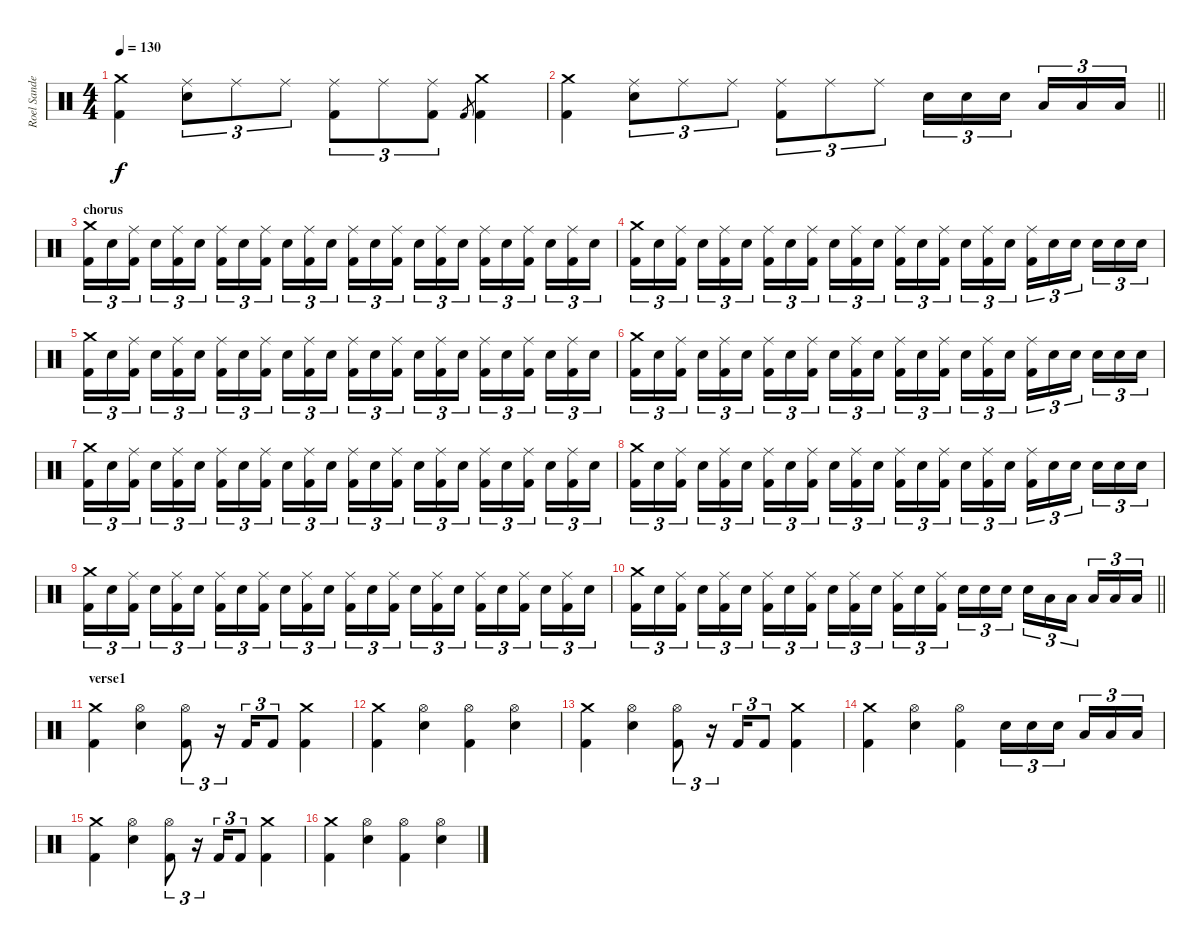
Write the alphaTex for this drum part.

\track ("Roel Sander " "Roel Sande") {instrument percussion}
\staff {score}
\articulation defaults
\ts (4 4)
\tempo 130
\clef neutral
\ks c
("Crash medium (hit)" "Kick (hit) 2").4{dy f} ("Ride (middle)" "Snare (hit) 2").8{tu (3 2)} "Ride (middle)".8{tu (3 2)} "Ride (middle)".8{tu (3 2)} ("Ride (middle)" "Kick (hit) 2").8{tu (3 2)} "Ride (middle)".8{tu (3 2)} ("Ride (middle)" "Kick (hit) 2").8{tu (3 2)} "Kick (hit) 2".8{gr} ("Crash medium (hit)" "Kick (hit) 2").4 |
\barLineRight lightlight
("Crash medium (hit)" "Kick (hit) 2").4 ("Ride (middle)" "Snare (hit) 2").8{tu (3 2)} "Ride (middle)".8{tu (3 2)} "Ride (middle)".8{tu (3 2)} ("Ride (middle)" "Kick (hit) 2").8{tu (3 2)} "Ride (middle)".8{tu (3 2)} "Ride (middle)".8{tu (3 2)} "Snare (hit) 2".16{tu (3 2)} "Snare (hit) 2".16{tu (3 2)} "Snare (hit) 2".16{tu (3 2) beam splitsecondary} "Low Tom (hit)".16{tu (3 2)} "Low Tom (hit)".16{tu (3 2)} "Low Tom (hit)".16{tu (3 2)} |
\section ("" "chorus")
("Crash medium (hit)" "Kick (hit) 2").16{tu (3 2)} "Snare (hit) 2".16{tu (3 2)} ("Ride (middle)" "Kick (hit) 2").16{tu (3 2) beam splitsecondary} "Snare (hit) 2".16{tu (3 2)} ("Ride (middle)" "Kick (hit) 2").16{tu (3 2)} "Snare (hit) 2".16{tu (3 2)} ("Ride (middle)" "Kick (hit) 2").16{tu (3 2)} "Snare (hit) 2".16{tu (3 2)} ("Ride (middle)" "Kick (hit) 2").16{tu (3 2) beam splitsecondary} "Snare (hit) 2".16{tu (3 2)} ("Ride (middle)" "Kick (hit) 2").16{tu (3 2)} "Snare (hit) 2".16{tu (3 2)} ("Ride (middle)" "Kick (hit) 2").16{tu (3 2)} "Snare (hit) 2".16{tu (3 2)} ("Ride (middle)" "Kick (hit) 2").16{tu (3 2) beam splitsecondary} "Snare (hit) 2".16{tu (3 2)} ("Ride (middle)" "Kick (hit) 2").16{tu (3 2)} "Snare (hit) 2".16{tu (3 2)} ("Ride (middle)" "Kick (hit) 2").16{tu (3 2)} "Snare (hit) 2".16{tu (3 2)} ("Ride (middle)" "Kick (hit) 2").16{tu (3 2) beam splitsecondary} "Snare (hit) 2".16{tu (3 2)} ("Ride (middle)" "Kick (hit) 2").16{tu (3 2)} "Snare (hit) 2".16{tu (3 2)} |
("Crash medium (hit)" "Kick (hit) 2").16{tu (3 2)} "Snare (hit) 2".16{tu (3 2)} ("Ride (middle)" "Kick (hit) 2").16{tu (3 2) beam splitsecondary} "Snare (hit) 2".16{tu (3 2)} ("Ride (middle)" "Kick (hit) 2").16{tu (3 2)} "Snare (hit) 2".16{tu (3 2)} ("Ride (middle)" "Kick (hit) 2").16{tu (3 2)} "Snare (hit) 2".16{tu (3 2)} ("Ride (middle)" "Kick (hit) 2").16{tu (3 2) beam splitsecondary} "Snare (hit) 2".16{tu (3 2)} ("Ride (middle)" "Kick (hit) 2").16{tu (3 2)} "Snare (hit) 2".16{tu (3 2)} ("Ride (middle)" "Kick (hit) 2").16{tu (3 2)} "Snare (hit) 2".16{tu (3 2)} ("Ride (middle)" "Kick (hit) 2").16{tu (3 2) beam splitsecondary} "Snare (hit) 2".16{tu (3 2)} ("Ride (middle)" "Kick (hit) 2").16{tu (3 2)} "Snare (hit) 2".16{tu (3 2)} ("Ride (middle)" "Kick (hit) 2").16{tu (3 2)} "Snare (hit) 2".16{tu (3 2)} "Snare (hit) 2".16{tu (3 2) beam splitsecondary} "Snare (hit) 2".16{tu (3 2)} "Snare (hit) 2".16{tu (3 2)} "Snare (hit) 2".16{tu (3 2)} |
("Crash medium (hit)" "Kick (hit) 2").16{tu (3 2)} "Snare (hit) 2".16{tu (3 2)} ("Ride (middle)" "Kick (hit) 2").16{tu (3 2) beam splitsecondary} "Snare (hit) 2".16{tu (3 2)} ("Ride (middle)" "Kick (hit) 2").16{tu (3 2)} "Snare (hit) 2".16{tu (3 2)} ("Ride (middle)" "Kick (hit) 2").16{tu (3 2)} "Snare (hit) 2".16{tu (3 2)} ("Ride (middle)" "Kick (hit) 2").16{tu (3 2) beam splitsecondary} "Snare (hit) 2".16{tu (3 2)} ("Ride (middle)" "Kick (hit) 2").16{tu (3 2)} "Snare (hit) 2".16{tu (3 2)} ("Ride (middle)" "Kick (hit) 2").16{tu (3 2)} "Snare (hit) 2".16{tu (3 2)} ("Ride (middle)" "Kick (hit) 2").16{tu (3 2) beam splitsecondary} "Snare (hit) 2".16{tu (3 2)} ("Ride (middle)" "Kick (hit) 2").16{tu (3 2)} "Snare (hit) 2".16{tu (3 2)} ("Ride (middle)" "Kick (hit) 2").16{tu (3 2)} "Snare (hit) 2".16{tu (3 2)} ("Ride (middle)" "Kick (hit) 2").16{tu (3 2) beam splitsecondary} "Snare (hit) 2".16{tu (3 2)} ("Ride (middle)" "Kick (hit) 2").16{tu (3 2)} "Snare (hit) 2".16{tu (3 2)} |
("Crash medium (hit)" "Kick (hit) 2").16{tu (3 2)} "Snare (hit) 2".16{tu (3 2)} ("Ride (middle)" "Kick (hit) 2").16{tu (3 2) beam splitsecondary} "Snare (hit) 2".16{tu (3 2)} ("Ride (middle)" "Kick (hit) 2").16{tu (3 2)} "Snare (hit) 2".16{tu (3 2)} ("Ride (middle)" "Kick (hit) 2").16{tu (3 2)} "Snare (hit) 2".16{tu (3 2)} ("Ride (middle)" "Kick (hit) 2").16{tu (3 2) beam splitsecondary} "Snare (hit) 2".16{tu (3 2)} ("Ride (middle)" "Kick (hit) 2").16{tu (3 2)} "Snare (hit) 2".16{tu (3 2)} ("Ride (middle)" "Kick (hit) 2").16{tu (3 2)} "Snare (hit) 2".16{tu (3 2)} ("Ride (middle)" "Kick (hit) 2").16{tu (3 2) beam splitsecondary} "Snare (hit) 2".16{tu (3 2)} ("Ride (middle)" "Kick (hit) 2").16{tu (3 2)} "Snare (hit) 2".16{tu (3 2)} ("Ride (middle)" "Kick (hit) 2").16{tu (3 2)} "Snare (hit) 2".16{tu (3 2)} "Snare (hit) 2".16{tu (3 2) beam splitsecondary} "Snare (hit) 2".16{tu (3 2)} "Snare (hit) 2".16{tu (3 2)} "Snare (hit) 2".16{tu (3 2)} |
("Crash medium (hit)" "Kick (hit) 2").16{tu (3 2)} "Snare (hit) 2".16{tu (3 2)} ("Ride (middle)" "Kick (hit) 2").16{tu (3 2) beam splitsecondary} "Snare (hit) 2".16{tu (3 2)} ("Ride (middle)" "Kick (hit) 2").16{tu (3 2)} "Snare (hit) 2".16{tu (3 2)} ("Ride (middle)" "Kick (hit) 2").16{tu (3 2)} "Snare (hit) 2".16{tu (3 2)} ("Ride (middle)" "Kick (hit) 2").16{tu (3 2) beam splitsecondary} "Snare (hit) 2".16{tu (3 2)} ("Ride (middle)" "Kick (hit) 2").16{tu (3 2)} "Snare (hit) 2".16{tu (3 2)} ("Ride (middle)" "Kick (hit) 2").16{tu (3 2)} "Snare (hit) 2".16{tu (3 2)} ("Ride (middle)" "Kick (hit) 2").16{tu (3 2) beam splitsecondary} "Snare (hit) 2".16{tu (3 2)} ("Ride (middle)" "Kick (hit) 2").16{tu (3 2)} "Snare (hit) 2".16{tu (3 2)} ("Ride (middle)" "Kick (hit) 2").16{tu (3 2)} "Snare (hit) 2".16{tu (3 2)} ("Ride (middle)" "Kick (hit) 2").16{tu (3 2) beam splitsecondary} "Snare (hit) 2".16{tu (3 2)} ("Ride (middle)" "Kick (hit) 2").16{tu (3 2)} "Snare (hit) 2".16{tu (3 2)} |
("Crash medium (hit)" "Kick (hit) 2").16{tu (3 2)} "Snare (hit) 2".16{tu (3 2)} ("Ride (middle)" "Kick (hit) 2").16{tu (3 2) beam splitsecondary} "Snare (hit) 2".16{tu (3 2)} ("Ride (middle)" "Kick (hit) 2").16{tu (3 2)} "Snare (hit) 2".16{tu (3 2)} ("Ride (middle)" "Kick (hit) 2").16{tu (3 2)} "Snare (hit) 2".16{tu (3 2)} ("Ride (middle)" "Kick (hit) 2").16{tu (3 2) beam splitsecondary} "Snare (hit) 2".16{tu (3 2)} ("Ride (middle)" "Kick (hit) 2").16{tu (3 2)} "Snare (hit) 2".16{tu (3 2)} ("Ride (middle)" "Kick (hit) 2").16{tu (3 2)} "Snare (hit) 2".16{tu (3 2)} ("Ride (middle)" "Kick (hit) 2").16{tu (3 2) beam splitsecondary} "Snare (hit) 2".16{tu (3 2)} ("Ride (middle)" "Kick (hit) 2").16{tu (3 2)} "Snare (hit) 2".16{tu (3 2)} ("Ride (middle)" "Kick (hit) 2").16{tu (3 2)} "Snare (hit) 2".16{tu (3 2)} "Snare (hit) 2".16{tu (3 2) beam splitsecondary} "Snare (hit) 2".16{tu (3 2)} "Snare (hit) 2".16{tu (3 2)} "Snare (hit) 2".16{tu (3 2)} |
("Crash medium (hit)" "Kick (hit) 2").16{tu (3 2)} "Snare (hit) 2".16{tu (3 2)} ("Ride (middle)" "Kick (hit) 2").16{tu (3 2) beam splitsecondary} "Snare (hit) 2".16{tu (3 2)} ("Ride (middle)" "Kick (hit) 2").16{tu (3 2)} "Snare (hit) 2".16{tu (3 2)} ("Ride (middle)" "Kick (hit) 2").16{tu (3 2)} "Snare (hit) 2".16{tu (3 2)} ("Ride (middle)" "Kick (hit) 2").16{tu (3 2) beam splitsecondary} "Snare (hit) 2".16{tu (3 2)} ("Ride (middle)" "Kick (hit) 2").16{tu (3 2)} "Snare (hit) 2".16{tu (3 2)} ("Ride (middle)" "Kick (hit) 2").16{tu (3 2)} "Snare (hit) 2".16{tu (3 2)} ("Ride (middle)" "Kick (hit) 2").16{tu (3 2) beam splitsecondary} "Snare (hit) 2".16{tu (3 2)} ("Ride (middle)" "Kick (hit) 2").16{tu (3 2)} "Snare (hit) 2".16{tu (3 2)} ("Ride (middle)" "Kick (hit) 2").16{tu (3 2)} "Snare (hit) 2".16{tu (3 2)} ("Ride (middle)" "Kick (hit) 2").16{tu (3 2) beam splitsecondary} "Snare (hit) 2".16{tu (3 2)} ("Ride (middle)" "Kick (hit) 2").16{tu (3 2)} "Snare (hit) 2".16{tu (3 2)} |
\barLineRight lightlight
("Crash medium (hit)" "Kick (hit) 2").16{tu (3 2)} "Snare (hit) 2".16{tu (3 2)} ("Ride (middle)" "Kick (hit) 2").16{tu (3 2) beam splitsecondary} "Snare (hit) 2".16{tu (3 2)} ("Ride (middle)" "Kick (hit) 2").16{tu (3 2)} "Snare (hit) 2".16{tu (3 2)} ("Ride (middle)" "Kick (hit) 2").16{tu (3 2)} "Snare (hit) 2".16{tu (3 2)} ("Ride (middle)" "Kick (hit) 2").16{tu (3 2) beam splitsecondary} "Snare (hit) 2".16{tu (3 2)} ("Ride (middle)" "Kick (hit) 2").16{tu (3 2)} "Snare (hit) 2".16{tu (3 2)} ("Ride (middle)" "Kick (hit) 2").16{tu (3 2)} "Snare (hit) 2".16{tu (3 2)} ("Ride (middle)" "Kick (hit) 2").16{tu (3 2) beam splitsecondary} "Snare (hit) 2".16{tu (3 2)} "Snare (hit) 2".16{tu (3 2)} "Snare (hit) 2".16{tu (3 2)} "Snare (hit) 2".16{tu (3 2)} "Low Tom (hit)".16{tu (3 2)} "Low Tom (hit)".16{tu (3 2) beam splitsecondary} "Low Tom (hit)".16{tu (3 2)} "Low Tom (hit)".16{tu (3 2)} "Low Tom (hit)".16{tu (3 2)} |
\section ("" "verse1")
("Crash medium (hit)" "Kick (hit) 2").4 ("Hi-Hat (open)" "Snare (hit) 2").4 ("Hi-Hat (open)" "Kick (hit) 2").8{tu (3 2)} r.16{tu (3 2)} "Kick (hit) 2".16{tu (3 2)} "Kick (hit) 2".8{tu (3 2)} ("Crash medium (hit)" "Kick (hit) 2").4 |
("Crash medium (hit)" "Kick (hit) 2").4 ("Hi-Hat (open)" "Snare (hit) 2").4 ("Hi-Hat (open)" "Kick (hit) 2").4 ("Hi-Hat (open)" "Snare (hit) 2").4 |
("Crash medium (hit)" "Kick (hit) 2").4 ("Hi-Hat (open)" "Snare (hit) 2").4 ("Hi-Hat (open)" "Kick (hit) 2").8{tu (3 2)} r.16{tu (3 2)} "Kick (hit) 2".16{tu (3 2)} "Kick (hit) 2".8{tu (3 2)} ("Crash medium (hit)" "Kick (hit) 2").4 |
("Crash medium (hit)" "Kick (hit) 2").4 ("Hi-Hat (open)" "Snare (hit) 2").4 ("Hi-Hat (open)" "Kick (hit) 2").4 "Snare (hit) 2".16{tu (3 2)} "Snare (hit) 2".16{tu (3 2)} "Snare (hit) 2".16{tu (3 2) beam splitsecondary} "Low Tom (hit)".16{tu (3 2)} "Low Tom (hit)".16{tu (3 2)} "Low Tom (hit)".16{tu (3 2)} |
("Crash medium (hit)" "Kick (hit) 2").4 ("Hi-Hat (open)" "Snare (hit) 2").4 ("Hi-Hat (open)" "Kick (hit) 2").8{tu (3 2)} r.16{tu (3 2)} "Kick (hit) 2".16{tu (3 2)} "Kick (hit) 2".8{tu (3 2)} ("Crash medium (hit)" "Kick (hit) 2").4 |
("Crash medium (hit)" "Kick (hit) 2").4 ("Hi-Hat (open)" "Snare (hit) 2").4 ("Hi-Hat (open)" "Kick (hit) 2").4 ("Hi-Hat (open)" "Snare (hit) 2").4
